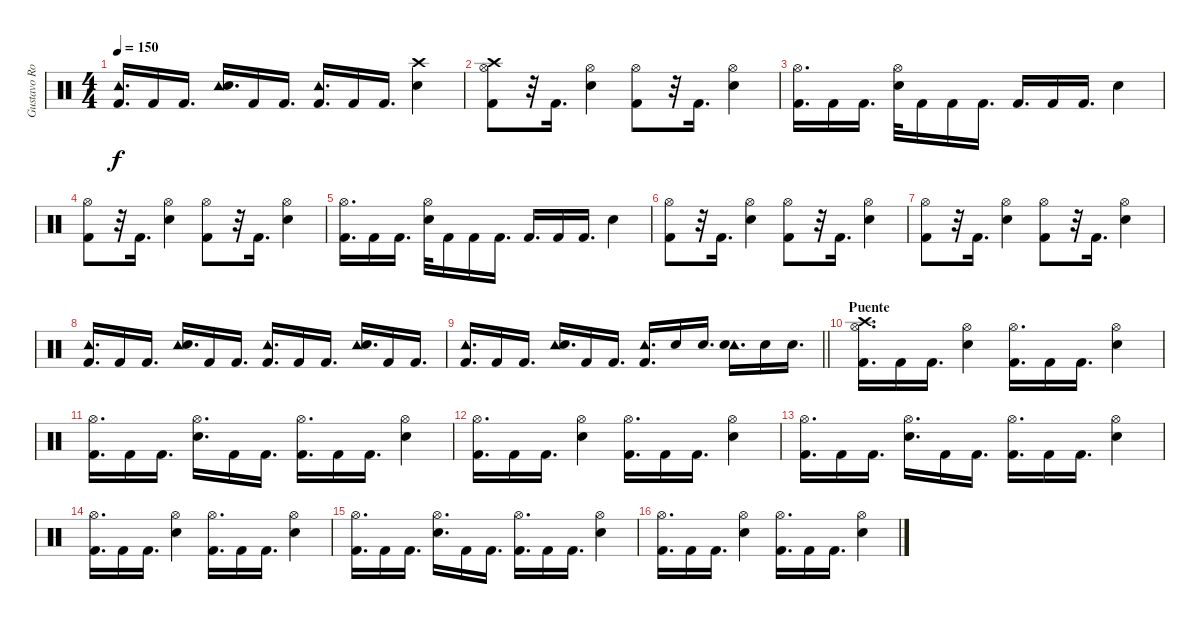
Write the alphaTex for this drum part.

\track ("Gustavo Rowek" "Gustavo Ro") {instrument percussion}
\staff {score}
\articulation defaults
\ts (4 4)
\tempo 150
\clef neutral
\ks c
("Tambourine (hit)" "Kick (hit) 2").16{d dy f} "Kick (hit) 2".16 "Kick (hit) 2".16{d} ("Tambourine (hit)" "Electric Snare (hit)").16{d} "Kick (hit) 2".16 "Kick (hit) 2".16{d} ("Tambourine (hit)" "Kick (hit) 2").16{d} "Kick (hit) 2".16 "Kick (hit) 2".16{d} ("Crash high (hit)" "Electric Snare (hit)").4 |
("Crash high (hit)" "Hi-Hat (open)" "Kick (hit) 2").8 r.32 "Kick (hit) 2".16{d} ("Hi-Hat (open)" "Electric Snare (hit)").4 ("Hi-Hat (open)" "Kick (hit) 2").8 r.32 "Kick (hit) 2".16{d} ("Hi-Hat (open)" "Electric Snare (hit)").4 |
("Hi-Hat (open)" "Kick (hit) 2").16{d} "Kick (hit) 2".16 "Kick (hit) 2".16{d} ("Hi-Hat (open)" "Electric Snare (hit)").32 "Kick (hit) 2".16 "Kick (hit) 2".16 "Kick (hit) 2".16{d} "Kick (hit) 2".16{d} "Kick (hit) 2".16 "Kick (hit) 2".16{d} "Electric Snare (hit)".4 |
("Hi-Hat (open)" "Kick (hit) 2").8 r.32 "Kick (hit) 2".16{d} ("Hi-Hat (open)" "Electric Snare (hit)").4 ("Hi-Hat (open)" "Kick (hit) 2").8 r.32 "Kick (hit) 2".16{d} ("Hi-Hat (open)" "Electric Snare (hit)").4 |
("Hi-Hat (open)" "Kick (hit) 2").16{d} "Kick (hit) 2".16 "Kick (hit) 2".16{d} ("Hi-Hat (open)" "Electric Snare (hit)").32 "Kick (hit) 2".16 "Kick (hit) 2".16 "Kick (hit) 2".16{d} "Kick (hit) 2".16{d} "Kick (hit) 2".16 "Kick (hit) 2".16{d} "Electric Snare (hit)".4 |
("Hi-Hat (open)" "Kick (hit) 2").8 r.32 "Kick (hit) 2".16{d} ("Hi-Hat (open)" "Electric Snare (hit)").4 ("Hi-Hat (open)" "Kick (hit) 2").8 r.32 "Kick (hit) 2".16{d} ("Hi-Hat (open)" "Electric Snare (hit)").4 |
("Hi-Hat (open)" "Kick (hit) 2").8 r.32 "Kick (hit) 2".16{d} ("Hi-Hat (open)" "Electric Snare (hit)").4 ("Hi-Hat (open)" "Kick (hit) 2").8 r.32 "Kick (hit) 2".16{d} ("Hi-Hat (open)" "Electric Snare (hit)").4 |
("Tambourine (hit)" "Kick (hit) 2").16{d} "Kick (hit) 2".16 "Kick (hit) 2".16{d} ("Tambourine (hit)" "Electric Snare (hit)").16{d} "Kick (hit) 2".16 "Kick (hit) 2".16{d} ("Tambourine (hit)" "Kick (hit) 2").16{d} "Kick (hit) 2".16 "Kick (hit) 2".16{d} ("Tambourine (hit)" "Electric Snare (hit)").16{d} "Kick (hit) 2".16 "Kick (hit) 2".16{d} |
\barLineRight lightlight
("Tambourine (hit)" "Kick (hit) 2").16{d} "Kick (hit) 2".16 "Kick (hit) 2".16{d} ("Tambourine (hit)" "Electric Snare (hit)").16{d} "Kick (hit) 2".16 "Kick (hit) 2".16{d} ("Tambourine (hit)" "Kick (hit) 2").16{d} "Electric Snare (hit)".16 "Electric Snare (hit)".16{d} ("Tambourine (hit)" "Electric Snare (hit)").16{d} "Electric Snare (hit)".16 "Electric Snare (hit)".16{d} |
\section ("" "Puente")
("Crash high (hit)" "Hi-Hat (open)" "Kick (hit) 2").16{d} "Kick (hit) 2".16 "Kick (hit) 2".16{d} ("Hi-Hat (open)" "Electric Snare (hit)").4 ("Hi-Hat (open)" "Kick (hit) 2").16{d} "Kick (hit) 2".16 "Kick (hit) 2".16{d} ("Hi-Hat (open)" "Electric Snare (hit)").4 |
("Hi-Hat (open)" "Kick (hit) 2").16{d} "Kick (hit) 2".16 "Kick (hit) 2".16{d} ("Hi-Hat (open)" "Electric Snare (hit)").16{d} "Kick (hit) 2".16 "Kick (hit) 2".16{d} ("Hi-Hat (open)" "Kick (hit) 2").16{d} "Kick (hit) 2".16 "Kick (hit) 2".16{d} ("Hi-Hat (open)" "Electric Snare (hit)").4 |
("Hi-Hat (open)" "Kick (hit) 2").16{d} "Kick (hit) 2".16 "Kick (hit) 2".16{d} ("Hi-Hat (open)" "Electric Snare (hit)").4 ("Hi-Hat (open)" "Kick (hit) 2").16{d} "Kick (hit) 2".16 "Kick (hit) 2".16{d} ("Hi-Hat (open)" "Electric Snare (hit)").4 |
("Hi-Hat (open)" "Kick (hit) 2").16{d} "Kick (hit) 2".16 "Kick (hit) 2".16{d} ("Hi-Hat (open)" "Electric Snare (hit)").16{d} "Kick (hit) 2".16 "Kick (hit) 2".16{d} ("Hi-Hat (open)" "Kick (hit) 2").16{d} "Kick (hit) 2".16 "Kick (hit) 2".16{d} ("Hi-Hat (open)" "Electric Snare (hit)").4 |
("Hi-Hat (open)" "Kick (hit) 2").16{d} "Kick (hit) 2".16 "Kick (hit) 2".16{d} ("Hi-Hat (open)" "Electric Snare (hit)").4 ("Hi-Hat (open)" "Kick (hit) 2").16{d} "Kick (hit) 2".16 "Kick (hit) 2".16{d} ("Hi-Hat (open)" "Electric Snare (hit)").4 |
("Hi-Hat (open)" "Kick (hit) 2").16{d} "Kick (hit) 2".16 "Kick (hit) 2".16{d} ("Hi-Hat (open)" "Electric Snare (hit)").16{d} "Kick (hit) 2".16 "Kick (hit) 2".16{d} ("Hi-Hat (open)" "Kick (hit) 2").16{d} "Kick (hit) 2".16 "Kick (hit) 2".16{d} ("Hi-Hat (open)" "Electric Snare (hit)").4 |
("Hi-Hat (open)" "Kick (hit) 2").16{d} "Kick (hit) 2".16 "Kick (hit) 2".16{d} ("Hi-Hat (open)" "Electric Snare (hit)").4 ("Hi-Hat (open)" "Kick (hit) 2").16{d} "Kick (hit) 2".16 "Kick (hit) 2".16{d} ("Hi-Hat (open)" "Electric Snare (hit)").4
